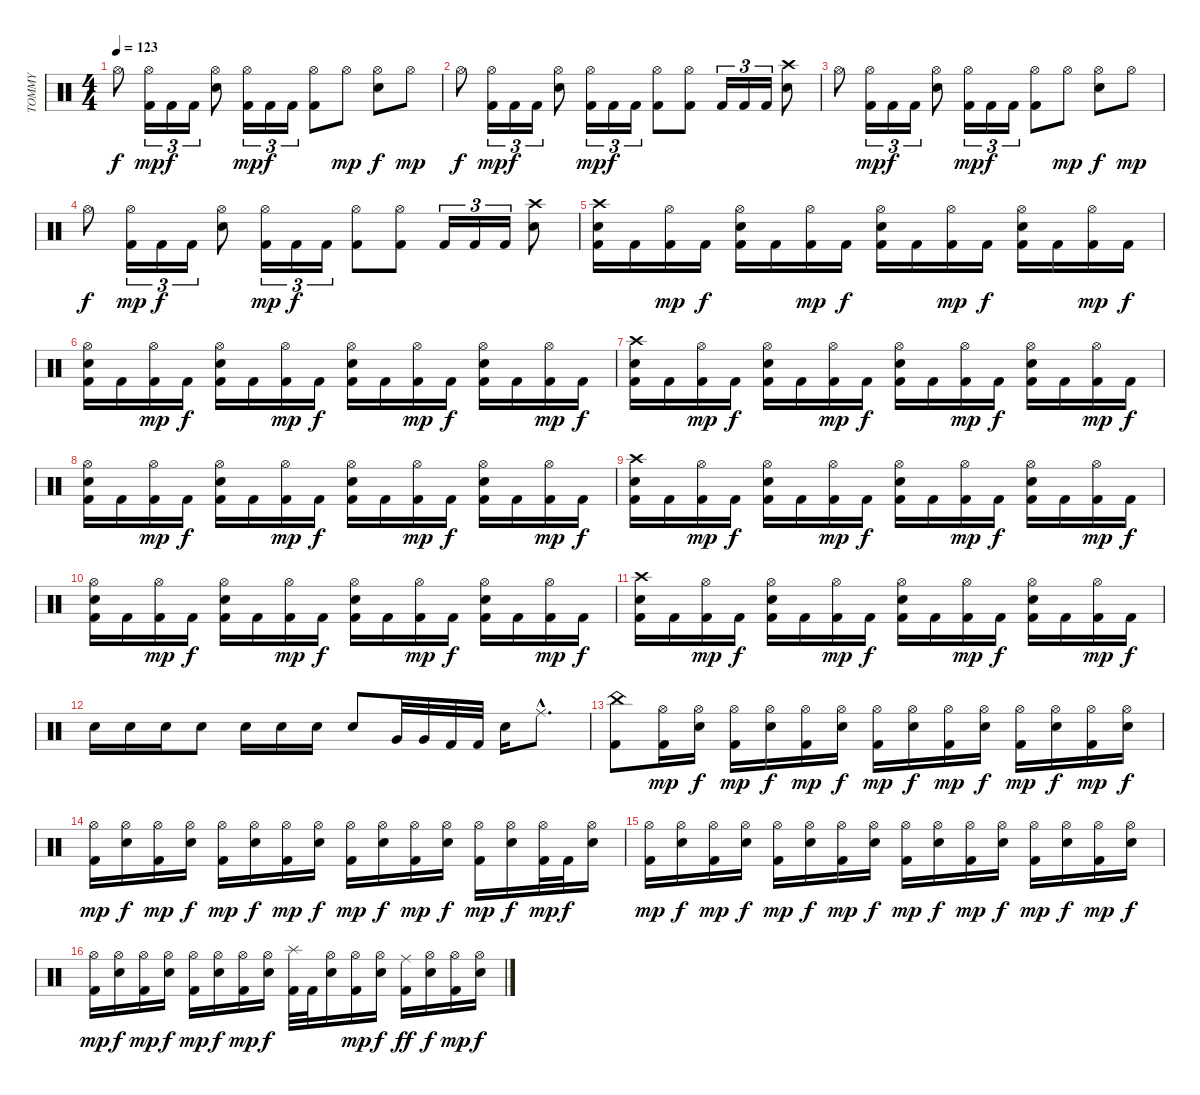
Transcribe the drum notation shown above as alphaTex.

\track ("TOMMY" "TOMMY") {instrument percussion}
\staff {score}
\articulation defaults
\ts (4 4)
\tempo 123
\clef neutral
\ks c "Hi-Hat (open)".8{dy f}
("Kick (hit) 2" "Hi-Hat (open)").16{tu (3 2) dy mp} "Kick (hit) 2".16{tu (3 2) dy f} "Kick (hit) 2".16{tu (3 2)} ("Snare (hit) 2" "Hi-Hat (open)").8 ("Kick (hit) 2" "Hi-Hat (open)").16{tu (3 2) dy mp} "Kick (hit) 2".16{tu (3 2) dy f} "Kick (hit) 2".16{tu (3 2)} ("Kick (hit) 2" "Hi-Hat (open)").8 "Hi-Hat (open)".8{dy mp} ("Snare (hit) 2" "Hi-Hat (open)").8{dy f} "Hi-Hat (open)".8{dy mp} |
"Hi-Hat (open)".8{dy f} ("Kick (hit) 2" "Hi-Hat (open)").16{tu (3 2) dy mp} "Kick (hit) 2".16{tu (3 2) dy f} "Kick (hit) 2".16{tu (3 2)} ("Snare (hit) 2" "Hi-Hat (open)").8 ("Kick (hit) 2" "Hi-Hat (open)").16{tu (3 2) dy mp} "Kick (hit) 2".16{tu (3 2) dy f} "Kick (hit) 2".16{tu (3 2)} ("Kick (hit) 2" "Hi-Hat (open)").8 ("Kick (hit) 2" "Hi-Hat (open)").8 "Kick (hit) 2".16{tu (3 2)} "Kick (hit) 2".16{tu (3 2)} "Kick (hit) 2".16{tu (3 2)} ("Snare (hit) 2" "Crash high (hit)").8 |
"Hi-Hat (open)".8 ("Kick (hit) 2" "Hi-Hat (open)").16{tu (3 2) dy mp} "Kick (hit) 2".16{tu (3 2) dy f} "Kick (hit) 2".16{tu (3 2)} ("Snare (hit) 2" "Hi-Hat (open)").8 ("Kick (hit) 2" "Hi-Hat (open)").16{tu (3 2) dy mp} "Kick (hit) 2".16{tu (3 2) dy f} "Kick (hit) 2".16{tu (3 2)} ("Kick (hit) 2" "Hi-Hat (open)").8 "Hi-Hat (open)".8{dy mp} ("Snare (hit) 2" "Hi-Hat (open)").8{dy f} "Hi-Hat (open)".8{dy mp} |
"Hi-Hat (open)".8{dy f} ("Kick (hit) 2" "Hi-Hat (open)").16{tu (3 2) dy mp} "Kick (hit) 2".16{tu (3 2) dy f} "Kick (hit) 2".16{tu (3 2)} ("Snare (hit) 2" "Hi-Hat (open)").8 ("Kick (hit) 2" "Hi-Hat (open)").16{tu (3 2) dy mp} "Kick (hit) 2".16{tu (3 2) dy f} "Kick (hit) 2".16{tu (3 2)} ("Kick (hit) 2" "Hi-Hat (open)").8 ("Kick (hit) 2" "Hi-Hat (open)").8 "Kick (hit) 2".16{tu (3 2)} "Kick (hit) 2".16{tu (3 2)} "Kick (hit) 2".16{tu (3 2)} ("Snare (hit) 2" "Crash high (hit)").8 |
("Snare (hit) 2" "Kick (hit) 2" "Crash high (hit)").16 "Kick (hit) 2".16 ("Kick (hit) 2" "Hi-Hat (open)").16{dy mp} "Kick (hit) 2".16{dy f} ("Snare (hit) 2" "Kick (hit) 2" "Hi-Hat (open)").16 "Kick (hit) 2".16 ("Kick (hit) 2" "Hi-Hat (open)").16{dy mp} "Kick (hit) 2".16{dy f} ("Snare (hit) 2" "Kick (hit) 2" "Hi-Hat (open)").16 "Kick (hit) 2".16 ("Kick (hit) 2" "Hi-Hat (open)").16{dy mp} "Kick (hit) 2".16{dy f} ("Snare (hit) 2" "Kick (hit) 2" "Hi-Hat (open)").16 "Kick (hit) 2".16 ("Kick (hit) 2" "Hi-Hat (open)").16{dy mp} "Kick (hit) 2".16{dy f} |
("Snare (hit) 2" "Kick (hit) 2" "Hi-Hat (open)").16 "Kick (hit) 2".16 ("Kick (hit) 2" "Hi-Hat (open)").16{dy mp} "Kick (hit) 2".16{dy f} ("Snare (hit) 2" "Kick (hit) 2" "Hi-Hat (open)").16 "Kick (hit) 2".16 ("Kick (hit) 2" "Hi-Hat (open)").16{dy mp} "Kick (hit) 2".16{dy f} ("Snare (hit) 2" "Kick (hit) 2" "Hi-Hat (open)").16 "Kick (hit) 2".16 ("Kick (hit) 2" "Hi-Hat (open)").16{dy mp} "Kick (hit) 2".16{dy f} ("Snare (hit) 2" "Kick (hit) 2" "Hi-Hat (open)").16 "Kick (hit) 2".16 ("Kick (hit) 2" "Hi-Hat (open)").16{dy mp} "Kick (hit) 2".16{dy f} |
("Snare (hit) 2" "Kick (hit) 2" "Crash high (hit)").16 "Kick (hit) 2".16 ("Kick (hit) 2" "Hi-Hat (open)").16{dy mp} "Kick (hit) 2".16{dy f} ("Snare (hit) 2" "Kick (hit) 2" "Hi-Hat (open)").16 "Kick (hit) 2".16 ("Kick (hit) 2" "Hi-Hat (open)").16{dy mp} "Kick (hit) 2".16{dy f} ("Snare (hit) 2" "Kick (hit) 2" "Hi-Hat (open)").16 "Kick (hit) 2".16 ("Kick (hit) 2" "Hi-Hat (open)").16{dy mp} "Kick (hit) 2".16{dy f} ("Snare (hit) 2" "Kick (hit) 2" "Hi-Hat (open)").16 "Kick (hit) 2".16 ("Kick (hit) 2" "Hi-Hat (open)").16{dy mp} "Kick (hit) 2".16{dy f} |
("Snare (hit) 2" "Kick (hit) 2" "Hi-Hat (open)").16 "Kick (hit) 2".16 ("Kick (hit) 2" "Hi-Hat (open)").16{dy mp} "Kick (hit) 2".16{dy f} ("Snare (hit) 2" "Kick (hit) 2" "Hi-Hat (open)").16 "Kick (hit) 2".16 ("Kick (hit) 2" "Hi-Hat (open)").16{dy mp} "Kick (hit) 2".16{dy f} ("Snare (hit) 2" "Kick (hit) 2" "Hi-Hat (open)").16 "Kick (hit) 2".16 ("Kick (hit) 2" "Hi-Hat (open)").16{dy mp} "Kick (hit) 2".16{dy f} ("Snare (hit) 2" "Kick (hit) 2" "Hi-Hat (open)").16 "Kick (hit) 2".16 ("Kick (hit) 2" "Hi-Hat (open)").16{dy mp} "Kick (hit) 2".16{dy f} |
("Snare (hit) 2" "Kick (hit) 2" "Crash high (hit)").16 "Kick (hit) 2".16 ("Kick (hit) 2" "Hi-Hat (open)").16{dy mp} "Kick (hit) 2".16{dy f} ("Snare (hit) 2" "Kick (hit) 2" "Hi-Hat (open)").16 "Kick (hit) 2".16 ("Kick (hit) 2" "Hi-Hat (open)").16{dy mp} "Kick (hit) 2".16{dy f} ("Snare (hit) 2" "Kick (hit) 2" "Hi-Hat (open)").16 "Kick (hit) 2".16 ("Kick (hit) 2" "Hi-Hat (open)").16{dy mp} "Kick (hit) 2".16{dy f} ("Snare (hit) 2" "Kick (hit) 2" "Hi-Hat (open)").16 "Kick (hit) 2".16 ("Kick (hit) 2" "Hi-Hat (open)").16{dy mp} "Kick (hit) 2".16{dy f} |
("Snare (hit) 2" "Kick (hit) 2" "Hi-Hat (open)").16 "Kick (hit) 2".16 ("Kick (hit) 2" "Hi-Hat (open)").16{dy mp} "Kick (hit) 2".16{dy f} ("Snare (hit) 2" "Kick (hit) 2" "Hi-Hat (open)").16 "Kick (hit) 2".16 ("Kick (hit) 2" "Hi-Hat (open)").16{dy mp} "Kick (hit) 2".16{dy f} ("Snare (hit) 2" "Kick (hit) 2" "Hi-Hat (open)").16 "Kick (hit) 2".16 ("Kick (hit) 2" "Hi-Hat (open)").16{dy mp} "Kick (hit) 2".16{dy f} ("Snare (hit) 2" "Kick (hit) 2" "Hi-Hat (open)").16 "Kick (hit) 2".16 ("Kick (hit) 2" "Hi-Hat (open)").16{dy mp} "Kick (hit) 2".16{dy f} |
("Snare (hit) 2" "Kick (hit) 2" "Crash high (hit)").16 "Kick (hit) 2".16 ("Kick (hit) 2" "Hi-Hat (open)").16{dy mp} "Kick (hit) 2".16{dy f} ("Snare (hit) 2" "Kick (hit) 2" "Hi-Hat (open)").16 "Kick (hit) 2".16 ("Kick (hit) 2" "Hi-Hat (open)").16{dy mp} "Kick (hit) 2".16{dy f} ("Snare (hit) 2" "Kick (hit) 2" "Hi-Hat (open)").16 "Kick (hit) 2".16 ("Kick (hit) 2" "Hi-Hat (open)").16{dy mp} "Kick (hit) 2".16{dy f} ("Snare (hit) 2" "Kick (hit) 2" "Hi-Hat (open)").16 "Kick (hit) 2".16 ("Kick (hit) 2" "Hi-Hat (open)").16{dy mp} "Kick (hit) 2".16{dy f} |
"Snare (hit) 2".16 "Snare (hit) 2".16 "Snare (hit) 2".16 "Snare (hit) 2".8 "Snare (hit) 2".16 "Snare (hit) 2".16 "Snare (hit) 2".16 "Snare (hit) 2".8 "Very Low Tom (hit)".32 "Very Low Tom (hit)".32 "Kick (hit) 2".32 "Kick (hit) 2".32 "Snare (hit) 2".16 "Ride (middle)"{hac}.8{d} |
("Kick (hit) 2" "China (hit)").8 ("Kick (hit) 2" "Hi-Hat (open)").16{dy mp} ("Snare (hit) 2" "Hi-Hat (open)").16{dy f} ("Kick (hit) 2" "Hi-Hat (open)").16{dy mp} ("Snare (hit) 2" "Hi-Hat (open)").16{dy f} ("Kick (hit) 2" "Hi-Hat (open)").16{dy mp} ("Snare (hit) 2" "Hi-Hat (open)").16{dy f} ("Kick (hit) 2" "Hi-Hat (open)").16{dy mp} ("Snare (hit) 2" "Hi-Hat (open)").16{dy f} ("Kick (hit) 2" "Hi-Hat (open)").16{dy mp} ("Snare (hit) 2" "Hi-Hat (open)").16{dy f} ("Kick (hit) 2" "Hi-Hat (open)").16{dy mp} ("Snare (hit) 2" "Hi-Hat (open)").16{dy f} ("Kick (hit) 2" "Hi-Hat (open)").16{dy mp} ("Snare (hit) 2" "Hi-Hat (open)").16{dy f} |
("Kick (hit) 2" "Hi-Hat (open)").16{dy mp} ("Snare (hit) 2" "Hi-Hat (open)").16{dy f} ("Kick (hit) 2" "Hi-Hat (open)").16{dy mp} ("Snare (hit) 2" "Hi-Hat (open)").16{dy f} ("Kick (hit) 2" "Hi-Hat (open)").16{dy mp} ("Snare (hit) 2" "Hi-Hat (open)").16{dy f} ("Kick (hit) 2" "Hi-Hat (open)").16{dy mp} ("Snare (hit) 2" "Hi-Hat (open)").16{dy f} ("Kick (hit) 2" "Hi-Hat (open)").16{dy mp} ("Snare (hit) 2" "Hi-Hat (open)").16{dy f} ("Kick (hit) 2" "Hi-Hat (open)").16{dy mp} ("Snare (hit) 2" "Hi-Hat (open)").16{dy f} ("Kick (hit) 2" "Hi-Hat (open)").16{dy mp} ("Snare (hit) 2" "Hi-Hat (open)").16{dy f} ("Kick (hit) 2" "Hi-Hat (open)").32{dy mp} "Kick (hit) 2".32{dy f} ("Snare (hit) 2" "Hi-Hat (open)").16 |
("Kick (hit) 2" "Hi-Hat (open)").16{dy mp} ("Snare (hit) 2" "Hi-Hat (open)").16{dy f} ("Kick (hit) 2" "Hi-Hat (open)").16{dy mp} ("Snare (hit) 2" "Hi-Hat (open)").16{dy f} ("Kick (hit) 2" "Hi-Hat (open)").16{dy mp} ("Snare (hit) 2" "Hi-Hat (open)").16{dy f} ("Kick (hit) 2" "Hi-Hat (open)").16{dy mp} ("Snare (hit) 2" "Hi-Hat (open)").16{dy f} ("Kick (hit) 2" "Hi-Hat (open)").16{dy mp} ("Snare (hit) 2" "Hi-Hat (open)").16{dy f} ("Kick (hit) 2" "Hi-Hat (open)").16{dy mp} ("Snare (hit) 2" "Hi-Hat (open)").16{dy f} ("Kick (hit) 2" "Hi-Hat (open)").16{dy mp} ("Snare (hit) 2" "Hi-Hat (open)").16{dy f} ("Kick (hit) 2" "Hi-Hat (open)").16{dy mp} ("Snare (hit) 2" "Hi-Hat (open)").16{dy f} |
("Kick (hit) 2" "Hi-Hat (open)").16{dy mp} ("Snare (hit) 2" "Hi-Hat (open)").16{dy f} ("Kick (hit) 2" "Hi-Hat (open)").16{dy mp} ("Snare (hit) 2" "Hi-Hat (open)").16{dy f} ("Kick (hit) 2" "Hi-Hat (open)").16{dy mp} ("Snare (hit) 2" "Hi-Hat (open)").16{dy f} ("Kick (hit) 2" "Hi-Hat (open)").16{dy mp} ("Snare (hit) 2" "Hi-Hat (open)").16{dy f} ("Kick (hit) 2" "Splash (hit)").32 "Kick (hit) 2".32 ("Snare (hit) 2" "Hi-Hat (open)").16 ("Kick (hit) 2" "Hi-Hat (open)").16{dy mp} ("Snare (hit) 2" "Hi-Hat (open)").16{dy f} ("Kick (hit) 2" "Ride (middle)").16{dy ff} ("Snare (hit) 2" "Hi-Hat (open)").16{dy f} ("Kick (hit) 2" "Hi-Hat (open)").16{dy mp} ("Snare (hit) 2" "Hi-Hat (open)").16{dy f}
